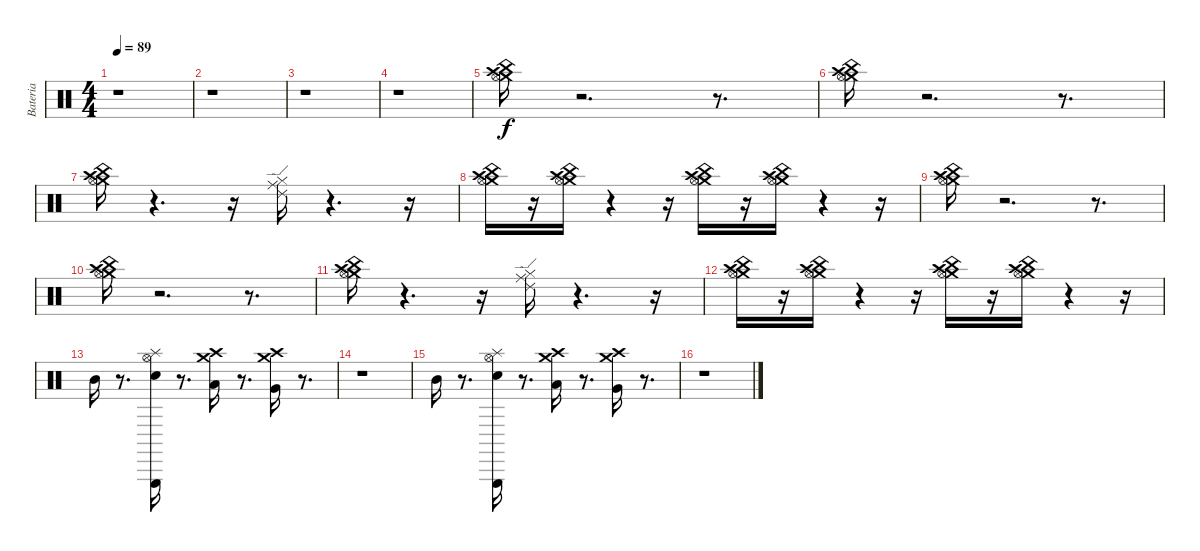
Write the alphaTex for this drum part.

\track ("Bateria" "Bateria") {instrument percussion}
\staff {score}
\articulation defaults
\ts (4 4)
\tempo 89
\clef neutral
\ks c
r.1{dy f} |
r.1 |
r.1 |
r.1 |
("China (hit)" "Crash high (hit)" "Crash medium (hit)" "Hi-Hat (open)").16 r.2{d} r.8{d} |
("China (hit)" "Crash high (hit)" "Crash medium (hit)" "Hi-Hat (open)").16 r.2{d} r.8{d} |
("China (hit)" "Crash high (hit)" "Crash medium (hit)" "Hi-Hat (open)").16 r.4{d} r.16 ("Ride (edge) 2" "Hi-Hat (closed)" "Ride (middle)").16 r.4{d} r.16 |
("China (hit)" "Crash high (hit)" "Crash medium (hit)" "Hi-Hat (open)").16 r.16 ("China (hit)" "Crash high (hit)" "Crash medium (hit)" "Hi-Hat (open)").16 r.4 r.16 ("China (hit)" "Crash high (hit)" "Crash medium (hit)" "Hi-Hat (open)").16 r.16 ("China (hit)" "Crash high (hit)" "Crash medium (hit)" "Hi-Hat (open)").16 r.4 r.16 |
("China (hit)" "Crash high (hit)" "Crash medium (hit)" "Hi-Hat (open)").16 r.2{d} r.8{d} |
("China (hit)" "Crash high (hit)" "Crash medium (hit)" "Hi-Hat (open)").16 r.2{d} r.8{d} |
("China (hit)" "Crash high (hit)" "Crash medium (hit)" "Hi-Hat (open)").16 r.4{d} r.16 ("Ride (edge) 2" "Hi-Hat (closed)" "Ride (middle)").16 r.4{d} r.16 |
("China (hit)" "Crash high (hit)" "Crash medium (hit)" "Hi-Hat (open)").16 r.16 ("China (hit)" "Crash high (hit)" "Crash medium (hit)" "Hi-Hat (open)").16 r.4 r.16 ("China (hit)" "Crash high (hit)" "Crash medium (hit)" "Hi-Hat (open)").16 r.16 ("China (hit)" "Crash high (hit)" "Crash medium (hit)" "Hi-Hat (open)").16 r.4 r.16 |
"Mid Tom (hit)".16 r.8{d} ("Hi-Hat (open)" "Triangle (hit)" "Metronome (bell)" "Splash (hit)").16 r.8{d} ("Crash high (hit)" "Crash medium (hit)" "Low Tom (hit)").16 r.8{d} ("Crash high (hit)" "Crash medium (hit)" "Very Low Tom (hit)").16 r.8{d} |
r.1 |
"Mid Tom (hit)".16 r.8{d} ("Hi-Hat (open)" "Triangle (hit)" "Metronome (bell)" "Splash (hit)").16 r.8{d} ("Crash high (hit)" "Crash medium (hit)" "Low Tom (hit)").16 r.8{d} ("Crash high (hit)" "Crash medium (hit)" "Very Low Tom (hit)").16 r.8{d} |
r.1
